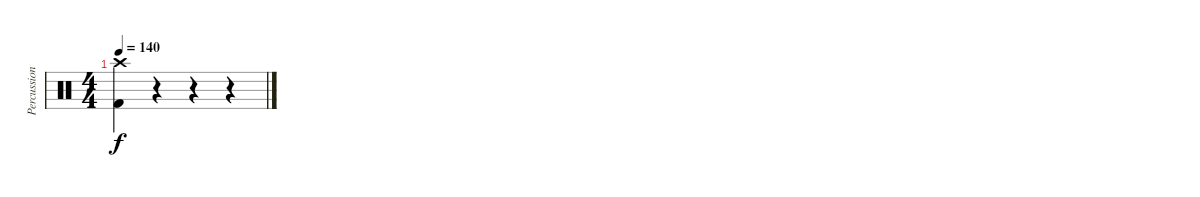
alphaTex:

\track ("Percussion" "Percussion") {instrument percussion}
\staff {score}
\articulation defaults
\ts (4 4)
\tempo 140
\clef neutral
\ks c
("Crash high (hit)" "Kick (hit) 2").4{dy f} r.4 r.4 r.4
